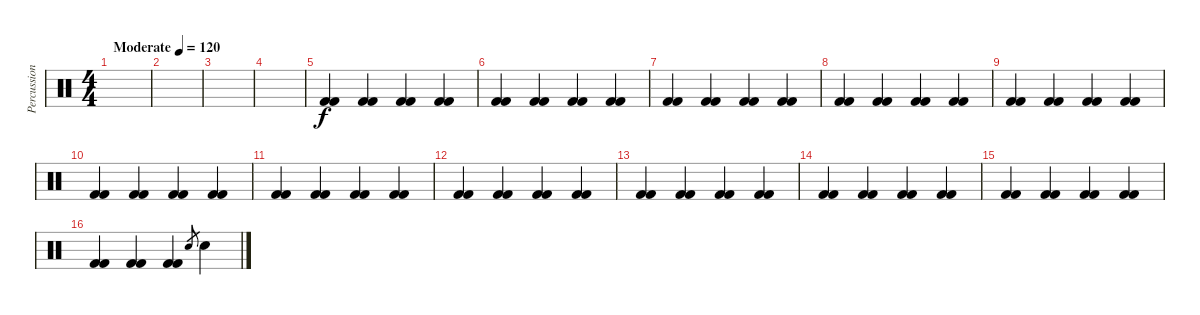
\track ("Percussion" "Percussion") {instrument percussion}
\staff {score}
\articulation defaults
\ts (4 4)
\tempo (120 "Moderate")
\clef neutral
\ks c
|
|
|
|
("Kick (hit) 2" "Kick (hit) 2").4 ("Kick (hit) 2" "Kick (hit) 2").4 ("Kick (hit) 2" "Kick (hit) 2").4 ("Kick (hit) 2" "Kick (hit) 2").4 |
("Kick (hit) 2" "Kick (hit) 2").4 ("Kick (hit) 2" "Kick (hit) 2").4 ("Kick (hit) 2" "Kick (hit) 2").4 ("Kick (hit) 2" "Kick (hit) 2").4 |
("Kick (hit) 2" "Kick (hit) 2").4 ("Kick (hit) 2" "Kick (hit) 2").4 ("Kick (hit) 2" "Kick (hit) 2").4 ("Kick (hit) 2" "Kick (hit) 2").4 |
("Kick (hit) 2" "Kick (hit) 2").4 ("Kick (hit) 2" "Kick (hit) 2").4 ("Kick (hit) 2" "Kick (hit) 2").4 ("Kick (hit) 2" "Kick (hit) 2").4 |
("Kick (hit) 2" "Kick (hit) 2").4 ("Kick (hit) 2" "Kick (hit) 2").4 ("Kick (hit) 2" "Kick (hit) 2").4 ("Kick (hit) 2" "Kick (hit) 2").4 |
("Kick (hit) 2" "Kick (hit) 2").4 ("Kick (hit) 2" "Kick (hit) 2").4 ("Kick (hit) 2" "Kick (hit) 2").4 ("Kick (hit) 2" "Kick (hit) 2").4 |
("Kick (hit) 2" "Kick (hit) 2").4 ("Kick (hit) 2" "Kick (hit) 2").4 ("Kick (hit) 2" "Kick (hit) 2").4 ("Kick (hit) 2" "Kick (hit) 2").4 |
("Kick (hit) 2" "Kick (hit) 2").4 ("Kick (hit) 2" "Kick (hit) 2").4 ("Kick (hit) 2" "Kick (hit) 2").4 ("Kick (hit) 2" "Kick (hit) 2").4 |
("Kick (hit) 2" "Kick (hit) 2").4 ("Kick (hit) 2" "Kick (hit) 2").4 ("Kick (hit) 2" "Kick (hit) 2").4 ("Kick (hit) 2" "Kick (hit) 2").4 |
("Kick (hit) 2" "Kick (hit) 2").4 ("Kick (hit) 2" "Kick (hit) 2").4 ("Kick (hit) 2" "Kick (hit) 2").4 ("Kick (hit) 2" "Kick (hit) 2").4 |
("Kick (hit) 2" "Kick (hit) 2").4 ("Kick (hit) 2" "Kick (hit) 2").4 ("Kick (hit) 2" "Kick (hit) 2").4 ("Kick (hit) 2" "Kick (hit) 2").4 |
("Kick (hit) 2" "Kick (hit) 2").4 ("Kick (hit) 2" "Kick (hit) 2").4 ("Kick (hit) 2" "Kick (hit) 2").4 "Electric Snare (hit)".8{gr} "Electric Snare (hit)".4
